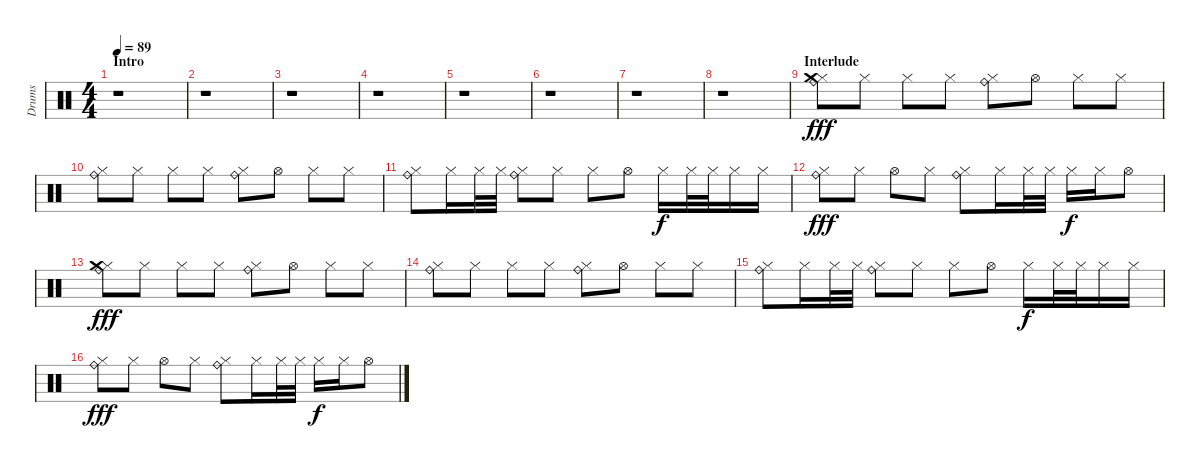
\track ("Drums" "Drums") {instrument percussion}
\staff {score}
\articulation defaults
\ts (4 4)
\section ("" "Intro")
\tempo 89
\clef neutral
\ks c
r.1{dy fff} |
r.1 |
r.1 |
r.1 |
r.1 |
r.1 |
r.1 |
r.1 |
\section ("" "Interlude")
("Hi-Hat (closed)" "Ride (bell)" "Crash medium (hit)").8 "Hi-Hat (closed)".8 "Hi-Hat (closed)".8 "Hi-Hat (closed)".8 ("Hi-Hat (closed)" "Ride (bell)").8 "Hi-Hat (open)".8 "Hi-Hat (closed)".8 "Hi-Hat (closed)".8 |
("Hi-Hat (closed)" "Ride (bell)").8 "Hi-Hat (closed)".8 "Hi-Hat (closed)".8 "Hi-Hat (closed)".8 ("Hi-Hat (closed)" "Ride (bell)").8 "Hi-Hat (open)".8 "Hi-Hat (closed)".8 "Hi-Hat (closed)".8 |
("Hi-Hat (closed)" "Ride (bell)").8 "Hi-Hat (closed)".16 "Hi-Hat (closed)".32 "Hi-Hat (closed)".32 ("Hi-Hat (closed)" "Ride (bell)").8 "Hi-Hat (closed)".8 "Hi-Hat (closed)".8 "Hi-Hat (open)".8 "Hi-Hat (closed)".16{dy f} "Hi-Hat (closed)".32 "Hi-Hat (closed)".32 "Hi-Hat (closed)".16 "Hi-Hat (closed)".16 |
("Hi-Hat (closed)" "Ride (bell)").8{dy fff} "Hi-Hat (closed)".8 "Hi-Hat (open)".8 "Hi-Hat (closed)".8 ("Hi-Hat (closed)" "Ride (bell)").8 "Hi-Hat (closed)".16 "Hi-Hat (closed)".32 "Hi-Hat (closed)".32 "Hi-Hat (closed)".16{dy f} "Hi-Hat (closed)".16 "Hi-Hat (open)".8 |
("Hi-Hat (closed)" "Ride (bell)" "Crash medium (hit)").8{dy fff} "Hi-Hat (closed)".8 "Hi-Hat (closed)".8 "Hi-Hat (closed)".8 ("Hi-Hat (closed)" "Ride (bell)").8 "Hi-Hat (open)".8 "Hi-Hat (closed)".8 "Hi-Hat (closed)".8 |
("Hi-Hat (closed)" "Ride (bell)").8 "Hi-Hat (closed)".8 "Hi-Hat (closed)".8 "Hi-Hat (closed)".8 ("Hi-Hat (closed)" "Ride (bell)").8 "Hi-Hat (open)".8 "Hi-Hat (closed)".8 "Hi-Hat (closed)".8 |
("Hi-Hat (closed)" "Ride (bell)").8 "Hi-Hat (closed)".16 "Hi-Hat (closed)".32 "Hi-Hat (closed)".32 ("Hi-Hat (closed)" "Ride (bell)").8 "Hi-Hat (closed)".8 "Hi-Hat (closed)".8 "Hi-Hat (open)".8 "Hi-Hat (closed)".16{dy f} "Hi-Hat (closed)".32 "Hi-Hat (closed)".32 "Hi-Hat (closed)".16 "Hi-Hat (closed)".16 |
("Hi-Hat (closed)" "Ride (bell)").8{dy fff} "Hi-Hat (closed)".8 "Hi-Hat (open)".8 "Hi-Hat (closed)".8 ("Hi-Hat (closed)" "Ride (bell)").8 "Hi-Hat (closed)".16 "Hi-Hat (closed)".32 "Hi-Hat (closed)".32 "Hi-Hat (closed)".16{dy f} "Hi-Hat (closed)".16 "Hi-Hat (open)".8
